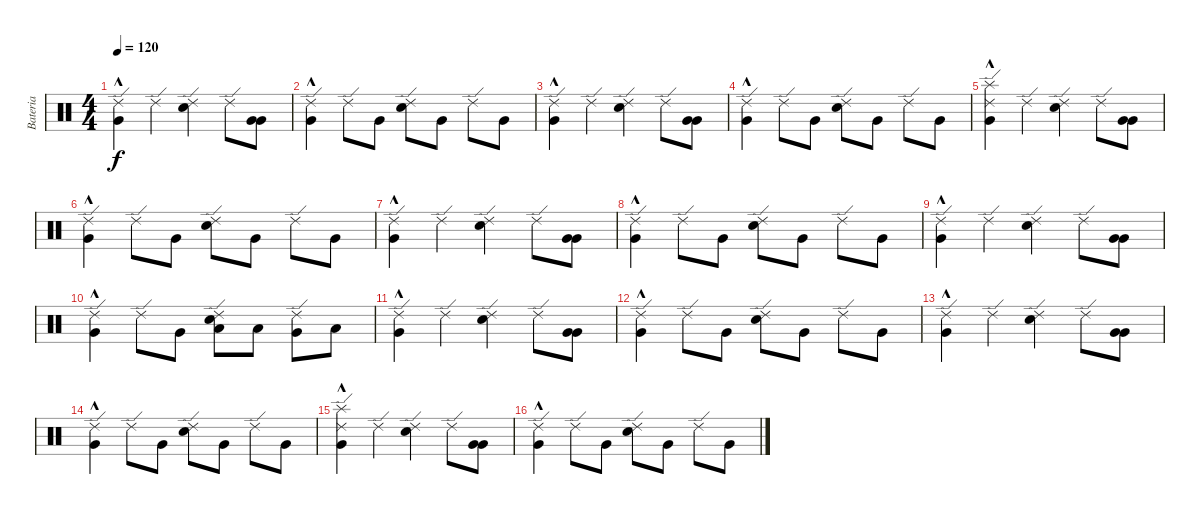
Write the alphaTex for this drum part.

\track ("Bateria" "Bateria") {instrument percussion}
\staff {score}
\articulation defaults
\ts (4 4)
\tempo 120
\clef neutral
\ks c
("Ride (edge) 2" "Very Low Tom (hit)"{hac}).4{dy f} "Ride (edge) 2".4 ("Ride (edge) 2" "Snare (hit) 2").4 "Ride (edge) 2".8 ("Very Low Tom (hit)" "Very Low Tom (hit)").8 |
("Ride (edge) 2" "Very Low Tom (hit)"{hac}).4 "Ride (edge) 2".8 "Very Low Tom (hit)".8 ("Snare (hit) 2" "Ride (edge) 2").8 "Very Low Tom (hit)".8 "Ride (edge) 2".8 "Very Low Tom (hit)".8 |
("Ride (edge) 2" "Very Low Tom (hit)"{hac}).4 "Ride (edge) 2".4 ("Ride (edge) 2" "Snare (hit) 2").4 "Ride (edge) 2".8 ("Very Low Tom (hit)" "Very Low Tom (hit)").8 |
("Ride (edge) 2" "Very Low Tom (hit)"{hac}).4 "Ride (edge) 2".8 "Very Low Tom (hit)".8 ("Snare (hit) 2" "Ride (edge) 2").8 "Very Low Tom (hit)".8 "Ride (edge) 2".8 "Very Low Tom (hit)".8 |
("Splash (hit)" "Ride (edge) 2" "Very Low Tom (hit)"{hac}).4 "Ride (edge) 2".4 ("Ride (edge) 2" "Snare (hit) 2").4 "Ride (edge) 2".8 ("Very Low Tom (hit)" "Very Low Tom (hit)").8 |
("Ride (edge) 2" "Very Low Tom (hit)"{hac}).4 "Ride (edge) 2".8 "Very Low Tom (hit)".8 ("Snare (hit) 2" "Ride (edge) 2").8 "Very Low Tom (hit)".8 "Ride (edge) 2".8 "Very Low Tom (hit)".8 |
("Ride (edge) 2" "Very Low Tom (hit)"{hac}).4 "Ride (edge) 2".4 ("Ride (edge) 2" "Snare (hit) 2").4 "Ride (edge) 2".8 ("Very Low Tom (hit)" "Very Low Tom (hit)").8 |
("Ride (edge) 2" "Very Low Tom (hit)"{hac}).4 "Ride (edge) 2".8 "Very Low Tom (hit)".8 ("Snare (hit) 2" "Ride (edge) 2").8 "Very Low Tom (hit)".8 "Ride (edge) 2".8 "Very Low Tom (hit)".8 |
("Ride (edge) 2" "Very Low Tom (hit)"{hac}).4 "Ride (edge) 2".4 ("Ride (edge) 2" "Snare (hit) 2").4 "Ride (edge) 2".8 ("Very Low Tom (hit)" "Very Low Tom (hit)").8 |
("Ride (edge) 2" "Very Low Tom (hit)"{hac}).4 "Ride (edge) 2".8 "Very Low Tom (hit)".8 ("Low Tom (hit)" "Snare (hit) 2" "Ride (edge) 2").8 "Low Tom (hit)".8 ("Very Low Tom (hit)" "Ride (edge) 2").8 "Low Floor Tom (hit)".8 |
("Ride (edge) 2" "Very Low Tom (hit)"{hac}).4 "Ride (edge) 2".4 ("Ride (edge) 2" "Snare (hit) 2").4 "Ride (edge) 2".8 ("Very Low Tom (hit)" "Very Low Tom (hit)").8 |
("Ride (edge) 2" "Very Low Tom (hit)"{hac}).4 "Ride (edge) 2".8 "Very Low Tom (hit)".8 ("Snare (hit) 2" "Ride (edge) 2").8 "Very Low Tom (hit)".8 "Ride (edge) 2".8 "Very Low Tom (hit)".8 |
("Ride (edge) 2" "Very Low Tom (hit)"{hac}).4 "Ride (edge) 2".4 ("Ride (edge) 2" "Snare (hit) 2").4 "Ride (edge) 2".8 ("Very Low Tom (hit)" "Very Low Tom (hit)").8 |
("Ride (edge) 2" "Very Low Tom (hit)"{hac}).4 "Ride (edge) 2".8 "Very Low Tom (hit)".8 ("Snare (hit) 2" "Ride (edge) 2").8 "Very Low Tom (hit)".8 "Ride (edge) 2".8 "Very Low Tom (hit)".8 |
("Splash (hit)" "Ride (edge) 2" "Very Low Tom (hit)"{hac}).4 "Ride (edge) 2".4 ("Ride (edge) 2" "Snare (hit) 2").4 "Ride (edge) 2".8 ("Very Low Tom (hit)" "Very Low Tom (hit)").8 |
("Ride (edge) 2" "Very Low Tom (hit)"{hac}).4 "Ride (edge) 2".8 "Very Low Tom (hit)".8 ("Snare (hit) 2" "Ride (edge) 2").8 "Very Low Tom (hit)".8 "Ride (edge) 2".8 "Very Low Tom (hit)".8
